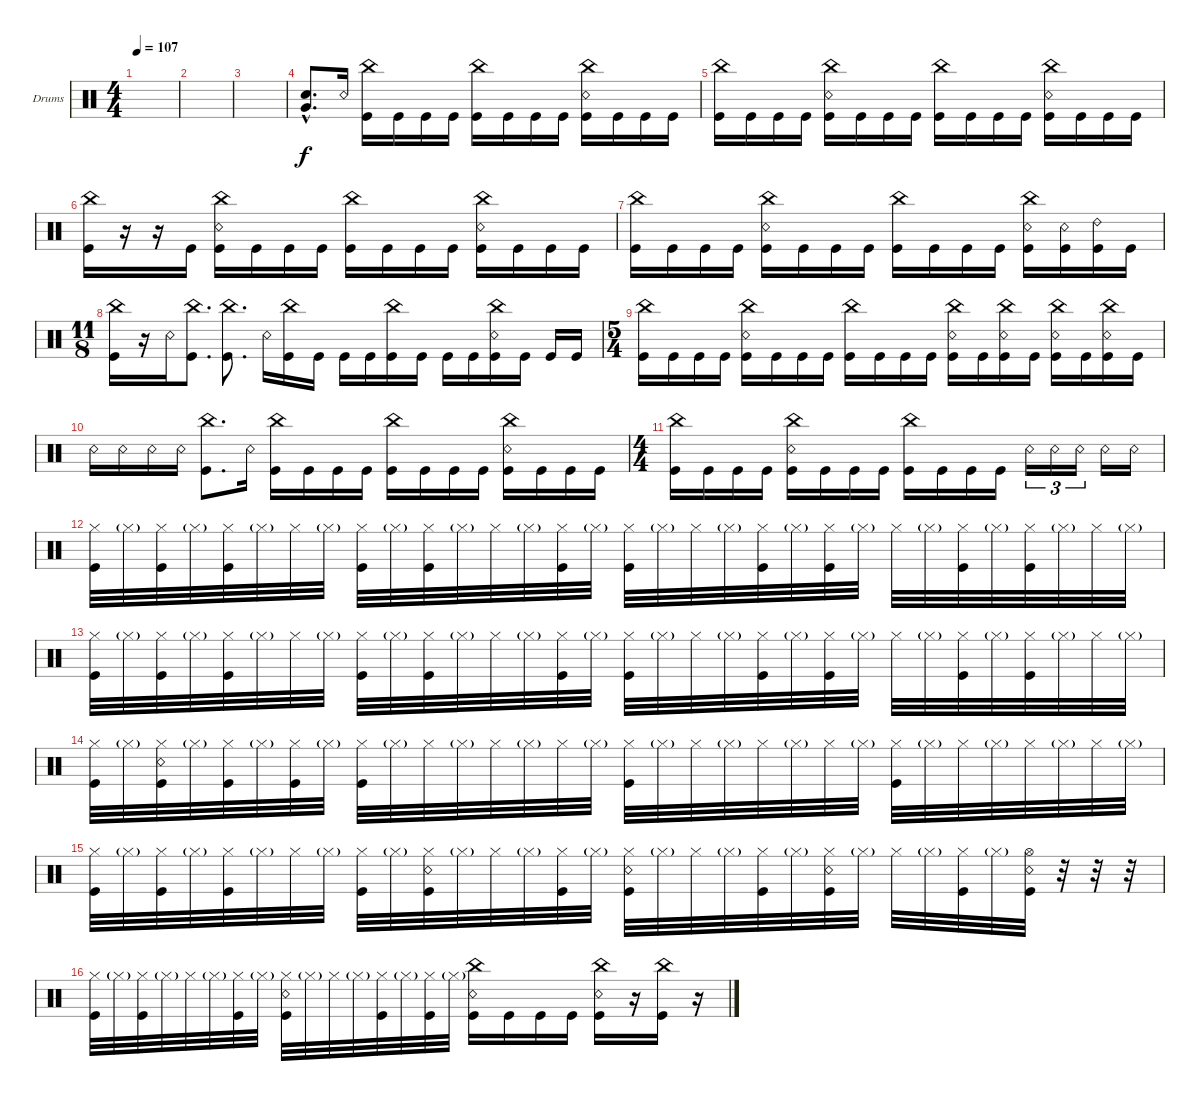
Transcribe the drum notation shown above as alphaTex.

\defaultSystemsLayout 4
\bracketExtendMode groupsimilarinstruments
\firstSystemTrackNameOrientation horizontal
\otherSystemsTrackNameOrientation horizontal
\track ("Drumkit" "Drums") {instrument percussion}
\staff {score}
\articulation defaults
\ts (4 4)
\tempo 107
\clef neutral
\ks c
|
|
|
\scale
0.472222 ("Snare (hit) 2" "Very Low Tom (hit)"{hac}).8{d} "Snare (rim shot)".16 ("Kick (hit)" "China (hit)").16 "Kick (hit)".16 "Kick (hit)".16 "Kick (hit)".16 ("Kick (hit)" "China (hit)").16 "Kick (hit)".16 "Kick (hit)".16 "Kick (hit)".16 ("Kick (hit)" "China (hit)" "Snare (rim shot)").16 "Kick (hit)".16 "Kick (hit)".16 "Kick (hit)".16 |
\scale
0.263889 ("Kick (hit)" "China (hit)").16 "Kick (hit)".16 "Kick (hit)".16 "Kick (hit)".16 ("Kick (hit)" "China (hit)" "Snare (rim shot)").16 "Kick (hit)".16 "Kick (hit)".16 "Kick (hit)".16 ("Kick (hit)" "China (hit)").16 "Kick (hit)".16 "Kick (hit)".16 "Kick (hit)".16 ("Kick (hit)" "China (hit)" "Snare (rim shot)").16 "Kick (hit)".16 "Kick (hit)".16 "Kick (hit)".16 |
\scale
0.263889 ("Kick (hit)" "China (hit)").16 r.16 r.16 "Kick (hit)".16 ("Kick (hit)" "China (hit)" "Snare (rim shot)").16 "Kick (hit)".16 "Kick (hit)".16 "Kick (hit)".16 ("Kick (hit)" "China (hit)").16 "Kick (hit)".16 "Kick (hit)".16 "Kick (hit)".16 ("Kick (hit)" "China (hit)" "Snare (rim shot)").16 "Kick (hit)".16 "Kick (hit)".16 "Kick (hit)".16 |
\scale
0.333333 ("Kick (hit)" "China (hit)").16 "Kick (hit)".16 "Kick (hit)".16 "Kick (hit)".16 ("Kick (hit)" "China (hit)" "Snare (rim shot)").16 "Kick (hit)".16 "Kick (hit)".16 "Kick (hit)".16 ("Kick (hit)" "China (hit)").16 "Kick (hit)".16 "Kick (hit)".16 "Kick (hit)".16 ("Kick (hit)" "China (hit)" "Snare (rim shot)").16 ("Kick (hit)" "Snare (rim shot)").16 ("Kick (hit)" "Ride (bell) 2").16 "Kick (hit)".16 |
\ts (11 8)
\scale
0.333333 ("Kick (hit)" "China (hit)").16 r.16 "Snare (rim shot)".16 ("Kick (hit)" "China (hit)").8{d} ("Kick (hit)" "China (hit)").8{d} "Snare (rim shot)".16 ("Kick (hit)" "China (hit)").16 "Kick (hit)".16 "Kick (hit)".16 "Kick (hit)".16 ("Kick (hit)" "China (hit)").16 "Kick (hit)".16 "Kick (hit)".16 "Kick (hit)".16 ("Kick (hit)" "China (hit)" "Snare (rim shot)").16 "Kick (hit)".16 "Kick (hit)".16 "Kick (hit)".16 |
\ts (5 4)
\scale
0.333333 ("Kick (hit)" "China (hit)").16 "Kick (hit)".16 "Kick (hit)".16 "Kick (hit)".16 ("Kick (hit)" "China (hit)" "Snare (rim shot)").16 "Kick (hit)".16 "Kick (hit)".16 "Kick (hit)".16 ("Kick (hit)" "China (hit)").16 "Kick (hit)".16 "Kick (hit)".16 "Kick (hit)".16 ("Kick (hit)" "China (hit)" "Snare (rim shot)").16 "Kick (hit)".16 ("Kick (hit)" "China (hit)" "Snare (rim shot)").16 "Kick (hit)".16 ("Kick (hit)" "China (hit)" "Snare (rim shot)").16 "Kick (hit)".16 ("Kick (hit)" "China (hit)" "Snare (rim shot)").16 "Kick (hit)".16 |
\scale
0.333333 "Snare (rim shot)".16 "Snare (rim shot)".16 "Snare (rim shot)".16 "Snare (rim shot)".16 ("Kick (hit)" "China (hit)").8{d} "Snare (rim shot)".16 ("Kick (hit)" "China (hit)").16 "Kick (hit)".16 "Kick (hit)".16 "Kick (hit)".16 ("Kick (hit)" "China (hit)").16 "Kick (hit)".16 "Kick (hit)".16 "Kick (hit)".16 ("Kick (hit)" "China (hit)" "Snare (rim shot)").16 "Kick (hit)".16 "Kick (hit)".16 "Kick (hit)".16 |
\ts (4 4)
\scale
0.333333 ("Kick (hit)" "China (hit)").16 "Kick (hit)".16 "Kick (hit)".16 "Kick (hit)".16 ("Kick (hit)" "China (hit)" "Snare (rim shot)").16 "Kick (hit)".16 "Kick (hit)".16 "Kick (hit)".16 ("Kick (hit)" "China (hit)").16 "Kick (hit)".16 "Kick (hit)".16 "Kick (hit)".16 "Snare (rim shot)".16{tu (3 2)} "Snare (rim shot)".16{tu (3 2)} "Snare (rim shot)".16{tu (3 2)} "Snare (rim shot)".16 "Snare (rim shot)".16 |
\scale
0.333333 ("Hi-Hat (closed)" "Kick (hit)").32 "Hi-Hat (closed)"{g}.32 ("Hi-Hat (closed)" "Kick (hit)").32 "Hi-Hat (closed)"{g}.32 ("Hi-Hat (closed)" "Kick (hit)").32 "Hi-Hat (closed)"{g}.32 "Hi-Hat (closed)".32 "Hi-Hat (closed)"{g}.32 ("Hi-Hat (closed)" "Kick (hit)").32 "Hi-Hat (closed)"{g}.32 ("Hi-Hat (closed)" "Kick (hit)").32 "Hi-Hat (closed)"{g}.32 "Hi-Hat (closed)".32 "Hi-Hat (closed)"{g}.32 ("Hi-Hat (closed)" "Kick (hit)").32 "Hi-Hat (closed)"{g}.32 ("Hi-Hat (closed)" "Kick (hit)").32 "Hi-Hat (closed)"{g}.32 "Hi-Hat (closed)".32 "Hi-Hat (closed)"{g}.32 ("Hi-Hat (closed)" "Kick (hit)").32 "Hi-Hat (closed)"{g}.32 ("Hi-Hat (closed)" "Kick (hit)").32 "Hi-Hat (closed)"{g}.32 "Hi-Hat (closed)".32 "Hi-Hat (closed)"{g}.32 ("Hi-Hat (closed)" "Kick (hit)").32 "Hi-Hat (closed)"{g}.32 ("Hi-Hat (closed)" "Kick (hit)").32 "Hi-Hat (closed)"{g}.32 "Hi-Hat (closed)".32 "Hi-Hat (closed)"{g}.32 |
\scale
0.333333 ("Hi-Hat (closed)" "Kick (hit)").32 "Hi-Hat (closed)"{g}.32 ("Hi-Hat (closed)" "Kick (hit)").32 "Hi-Hat (closed)"{g}.32 ("Hi-Hat (closed)" "Kick (hit)").32 "Hi-Hat (closed)"{g}.32 "Hi-Hat (closed)".32 "Hi-Hat (closed)"{g}.32 ("Hi-Hat (closed)" "Kick (hit)").32 "Hi-Hat (closed)"{g}.32 ("Hi-Hat (closed)" "Kick (hit)").32 "Hi-Hat (closed)"{g}.32 "Hi-Hat (closed)".32 "Hi-Hat (closed)"{g}.32 ("Hi-Hat (closed)" "Kick (hit)").32 "Hi-Hat (closed)"{g}.32 ("Hi-Hat (closed)" "Kick (hit)").32 "Hi-Hat (closed)"{g}.32 "Hi-Hat (closed)".32 "Hi-Hat (closed)"{g}.32 ("Hi-Hat (closed)" "Kick (hit)").32 "Hi-Hat (closed)"{g}.32 ("Hi-Hat (closed)" "Kick (hit)").32 "Hi-Hat (closed)"{g}.32 "Hi-Hat (closed)".32 "Hi-Hat (closed)"{g}.32 ("Hi-Hat (closed)" "Kick (hit)").32 "Hi-Hat (closed)"{g}.32 ("Hi-Hat (closed)" "Kick (hit)").32 "Hi-Hat (closed)"{g}.32 "Hi-Hat (closed)".32 "Hi-Hat (closed)"{g}.32 |
\scale
0.333333 ("Hi-Hat (closed)" "Kick (hit)").32 "Hi-Hat (closed)"{g}.32 ("Hi-Hat (closed)" "Kick (hit)" "Snare (rim shot)").32 "Hi-Hat (closed)"{g}.32 ("Hi-Hat (closed)" "Kick (hit)").32 "Hi-Hat (closed)"{g}.32 ("Hi-Hat (closed)" "Kick (hit)").32 "Hi-Hat (closed)"{g}.32 ("Hi-Hat (closed)" "Kick (hit)").32 "Hi-Hat (closed)"{g}.32 "Hi-Hat (closed)".32 "Hi-Hat (closed)"{g}.32 "Hi-Hat (closed)".32 "Hi-Hat (closed)"{g}.32 "Hi-Hat (closed)".32 "Hi-Hat (closed)"{g}.32 ("Hi-Hat (closed)" "Kick (hit)").32 "Hi-Hat (closed)"{g}.32 "Hi-Hat (closed)".32 "Hi-Hat (closed)"{g}.32 "Hi-Hat (closed)".32 "Hi-Hat (closed)"{g}.32 "Hi-Hat (closed)".32 "Hi-Hat (closed)"{g}.32 ("Hi-Hat (closed)" "Kick (hit)").32 "Hi-Hat (closed)"{g}.32 "Hi-Hat (closed)".32 "Hi-Hat (closed)"{g}.32 "Hi-Hat (closed)".32 "Hi-Hat (closed)"{g}.32 "Hi-Hat (closed)".32 "Hi-Hat (closed)"{g}.32 |
\scale
0.333333 ("Hi-Hat (closed)" "Kick (hit)").32 "Hi-Hat (closed)"{g}.32 ("Hi-Hat (closed)" "Kick (hit)").32 "Hi-Hat (closed)"{g}.32 ("Hi-Hat (closed)" "Kick (hit)").32 "Hi-Hat (closed)"{g}.32 "Hi-Hat (closed)".32 "Hi-Hat (closed)"{g}.32 ("Hi-Hat (closed)" "Kick (hit)").32 "Hi-Hat (closed)"{g}.32 ("Hi-Hat (closed)" "Kick (hit)" "Snare (rim shot)").32 "Hi-Hat (closed)"{g}.32 "Hi-Hat (closed)".32 "Hi-Hat (closed)"{g}.32 ("Hi-Hat (closed)" "Kick (hit)").32 "Hi-Hat (closed)"{g}.32 ("Hi-Hat (closed)" "Kick (hit)" "Snare (rim shot)").32 "Hi-Hat (closed)"{g}.32 "Hi-Hat (closed)".32 "Hi-Hat (closed)"{g}.32 ("Hi-Hat (closed)" "Kick (hit)").32 "Hi-Hat (closed)"{g}.32 ("Hi-Hat (closed)" "Kick (hit)" "Snare (rim shot)").32 "Hi-Hat (closed)"{g}.32 "Hi-Hat (closed)".32 "Hi-Hat (closed)"{g}.32 ("Hi-Hat (closed)" "Kick (hit)").32 "Hi-Hat (closed)"{g}.32 ("Hi-Hat (open)" "Kick (hit)" "Snare (rim shot)").32 r.32 r.32 r.32 |
\scale
0.333333 ("Hi-Hat (closed)" "Kick (hit)").32 "Hi-Hat (closed)"{g}.32 ("Hi-Hat (closed)" "Kick (hit)").32 "Hi-Hat (closed)"{g}.32 "Hi-Hat (closed)".32 "Hi-Hat (closed)"{g}.32 ("Hi-Hat (closed)" "Kick (hit)").32 "Hi-Hat (closed)"{g}.32 ("Hi-Hat (closed)" "Kick (hit)" "Snare (rim shot)").32 "Hi-Hat (closed)"{g}.32 "Hi-Hat (closed)".32 "Hi-Hat (closed)"{g}.32 ("Hi-Hat (closed)" "Kick (hit)").32 "Hi-Hat (closed)"{g}.32 ("Hi-Hat (closed)" "Kick (hit)").32 "Hi-Hat (closed)"{g}.32 ("Snare (rim shot)" "China (hit)" "Kick (hit)").16 "Kick (hit)".16 "Kick (hit)".16 "Kick (hit)".16 ("Snare (rim shot)" "Kick (hit)" "China (hit)").16 r.16 ("Kick (hit)" "China (hit)").16 r.16
